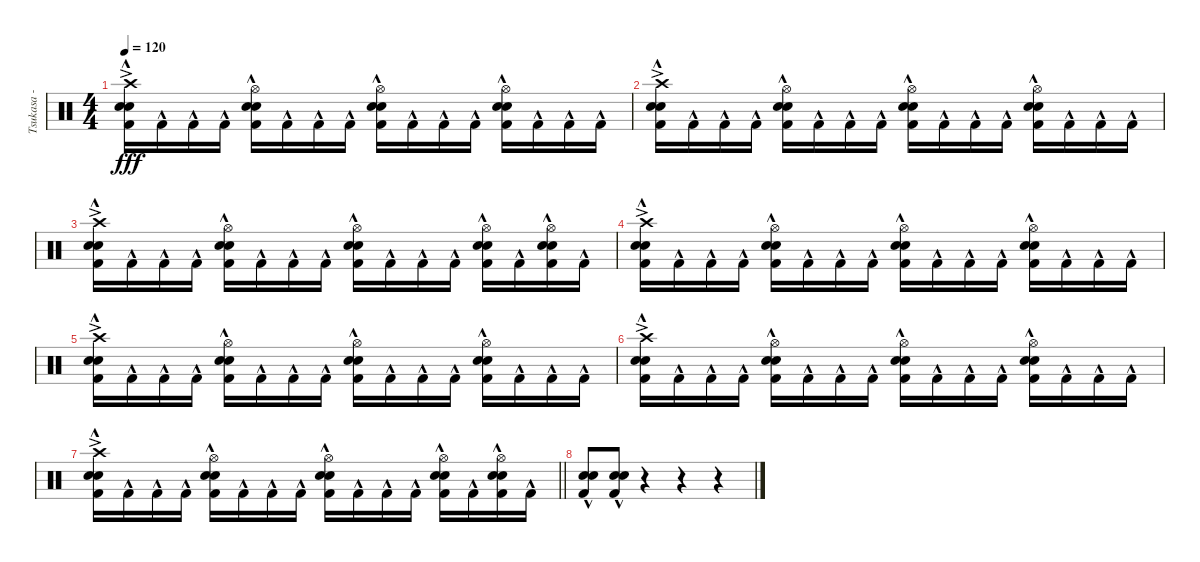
\track ("Tsukasa - Drums" "Tsukasa - ") {instrument percussion}
\staff {score}
\articulation defaults
\ts (4 4)
\tempo 120
\clef neutral
\ks c
("Crash high (hit)"{ac} "Electric Snare (hit)"{hac} "Snare (hit) 2"{hac} "Kick (hit) 2"{hac}).16{dy fff} "Kick (hit) 2"{hac}.16 "Kick (hit) 2"{hac}.16 "Kick (hit) 2"{hac}.16 ("Hi-Hat (open)" "Electric Snare (hit)"{hac} "Snare (hit) 2"{hac} "Kick (hit) 2"{hac}).16 "Kick (hit) 2"{hac}.16 "Kick (hit) 2"{hac}.16 "Kick (hit) 2"{hac}.16 ("Hi-Hat (open)" "Electric Snare (hit)"{hac} "Snare (hit) 2"{hac} "Kick (hit) 2"{hac}).16 "Kick (hit) 2"{hac}.16 "Kick (hit) 2"{hac}.16 "Kick (hit) 2"{hac}.16 ("Hi-Hat (open)" "Electric Snare (hit)"{hac} "Snare (hit) 2"{hac} "Kick (hit) 2"{hac}).16 "Kick (hit) 2"{hac}.16 "Kick (hit) 2"{hac}.16 "Kick (hit) 2"{hac}.16 |
("Crash high (hit)"{ac} "Electric Snare (hit)"{hac} "Snare (hit) 2"{hac} "Kick (hit) 2"{hac}).16 "Kick (hit) 2"{hac}.16 "Kick (hit) 2"{hac}.16 "Kick (hit) 2"{hac}.16 ("Hi-Hat (open)" "Electric Snare (hit)"{hac} "Snare (hit) 2"{hac} "Kick (hit) 2"{hac}).16 "Kick (hit) 2"{hac}.16 "Kick (hit) 2"{hac}.16 "Kick (hit) 2"{hac}.16 ("Hi-Hat (open)" "Electric Snare (hit)"{hac} "Snare (hit) 2"{hac} "Kick (hit) 2"{hac}).16 "Kick (hit) 2"{hac}.16 "Kick (hit) 2"{hac}.16 "Kick (hit) 2"{hac}.16 ("Hi-Hat (open)" "Electric Snare (hit)"{hac} "Snare (hit) 2"{hac} "Kick (hit) 2"{hac}).16 "Kick (hit) 2"{hac}.16 "Kick (hit) 2"{hac}.16 "Kick (hit) 2"{hac}.16 |
("Crash high (hit)"{ac} "Electric Snare (hit)"{hac} "Snare (hit) 2"{hac} "Kick (hit) 2"{hac}).16 "Kick (hit) 2"{hac}.16 "Kick (hit) 2"{hac}.16 "Kick (hit) 2"{hac}.16 ("Hi-Hat (open)" "Electric Snare (hit)"{hac} "Snare (hit) 2"{hac} "Kick (hit) 2"{hac}).16 "Kick (hit) 2"{hac}.16 "Kick (hit) 2"{hac}.16 "Kick (hit) 2"{hac}.16 ("Hi-Hat (open)" "Electric Snare (hit)"{hac} "Snare (hit) 2"{hac} "Kick (hit) 2"{hac}).16 "Kick (hit) 2"{hac}.16 "Kick (hit) 2"{hac}.16 "Kick (hit) 2"{hac}.16 ("Hi-Hat (open)" "Electric Snare (hit)"{hac} "Snare (hit) 2"{hac} "Kick (hit) 2"{hac}).16 "Kick (hit) 2"{hac}.16 ("Hi-Hat (open)" "Electric Snare (hit)"{hac} "Snare (hit) 2"{hac} "Kick (hit) 2"{hac}).16 "Kick (hit) 2"{hac}.16 |
("Crash high (hit)"{ac} "Electric Snare (hit)"{hac} "Snare (hit) 2"{hac} "Kick (hit) 2"{hac}).16 "Kick (hit) 2"{hac}.16 "Kick (hit) 2"{hac}.16 "Kick (hit) 2"{hac}.16 ("Hi-Hat (open)" "Electric Snare (hit)"{hac} "Snare (hit) 2"{hac} "Kick (hit) 2"{hac}).16 "Kick (hit) 2"{hac}.16 "Kick (hit) 2"{hac}.16 "Kick (hit) 2"{hac}.16 ("Hi-Hat (open)" "Electric Snare (hit)"{hac} "Snare (hit) 2"{hac} "Kick (hit) 2"{hac}).16 "Kick (hit) 2"{hac}.16 "Kick (hit) 2"{hac}.16 "Kick (hit) 2"{hac}.16 ("Hi-Hat (open)" "Electric Snare (hit)"{hac} "Snare (hit) 2"{hac} "Kick (hit) 2"{hac}).16 "Kick (hit) 2"{hac}.16 "Kick (hit) 2"{hac}.16 "Kick (hit) 2"{hac}.16 |
("Crash high (hit)"{ac} "Electric Snare (hit)"{hac} "Snare (hit) 2"{hac} "Kick (hit) 2"{hac}).16 "Kick (hit) 2"{hac}.16 "Kick (hit) 2"{hac}.16 "Kick (hit) 2"{hac}.16 ("Hi-Hat (open)" "Electric Snare (hit)"{hac} "Snare (hit) 2"{hac} "Kick (hit) 2"{hac}).16 "Kick (hit) 2"{hac}.16 "Kick (hit) 2"{hac}.16 "Kick (hit) 2"{hac}.16 ("Hi-Hat (open)" "Electric Snare (hit)"{hac} "Snare (hit) 2"{hac} "Kick (hit) 2"{hac}).16 "Kick (hit) 2"{hac}.16 "Kick (hit) 2"{hac}.16 "Kick (hit) 2"{hac}.16 ("Hi-Hat (open)" "Electric Snare (hit)"{hac} "Snare (hit) 2"{hac} "Kick (hit) 2"{hac}).16 "Kick (hit) 2"{hac}.16 "Kick (hit) 2"{hac}.16 "Kick (hit) 2"{hac}.16 |
("Crash high (hit)"{ac} "Electric Snare (hit)"{hac} "Snare (hit) 2"{hac} "Kick (hit) 2"{hac}).16 "Kick (hit) 2"{hac}.16 "Kick (hit) 2"{hac}.16 "Kick (hit) 2"{hac}.16 ("Hi-Hat (open)" "Electric Snare (hit)"{hac} "Snare (hit) 2"{hac} "Kick (hit) 2"{hac}).16 "Kick (hit) 2"{hac}.16 "Kick (hit) 2"{hac}.16 "Kick (hit) 2"{hac}.16 ("Hi-Hat (open)" "Electric Snare (hit)"{hac} "Snare (hit) 2"{hac} "Kick (hit) 2"{hac}).16 "Kick (hit) 2"{hac}.16 "Kick (hit) 2"{hac}.16 "Kick (hit) 2"{hac}.16 ("Hi-Hat (open)" "Electric Snare (hit)"{hac} "Snare (hit) 2"{hac} "Kick (hit) 2"{hac}).16 "Kick (hit) 2"{hac}.16 "Kick (hit) 2"{hac}.16 "Kick (hit) 2"{hac}.16 |
\barLineRight lightlight
("Crash high (hit)"{ac} "Electric Snare (hit)"{hac} "Snare (hit) 2"{hac} "Kick (hit) 2"{hac}).16 "Kick (hit) 2"{hac}.16 "Kick (hit) 2"{hac}.16 "Kick (hit) 2"{hac}.16 ("Hi-Hat (open)" "Electric Snare (hit)"{hac} "Snare (hit) 2"{hac} "Kick (hit) 2"{hac}).16 "Kick (hit) 2"{hac}.16 "Kick (hit) 2"{hac}.16 "Kick (hit) 2"{hac}.16 ("Hi-Hat (open)" "Electric Snare (hit)"{hac} "Snare (hit) 2"{hac} "Kick (hit) 2"{hac}).16 "Kick (hit) 2"{hac}.16 "Kick (hit) 2"{hac}.16 "Kick (hit) 2"{hac}.16 ("Hi-Hat (open)" "Electric Snare (hit)"{hac} "Snare (hit) 2"{hac} "Kick (hit) 2"{hac}).16 "Kick (hit) 2"{hac}.16 ("Hi-Hat (open)" "Electric Snare (hit)"{hac} "Snare (hit) 2"{hac} "Kick (hit) 2"{hac}).16 "Kick (hit) 2"{hac}.16 |
("Electric Snare (hit)"{hac} "Snare (hit) 2"{hac} "Kick (hit) 2"{hac}).8 ("Electric Snare (hit)"{hac} "Snare (hit) 2"{hac} "Kick (hit) 2"{hac}).8 r.4 r.4 r.4
